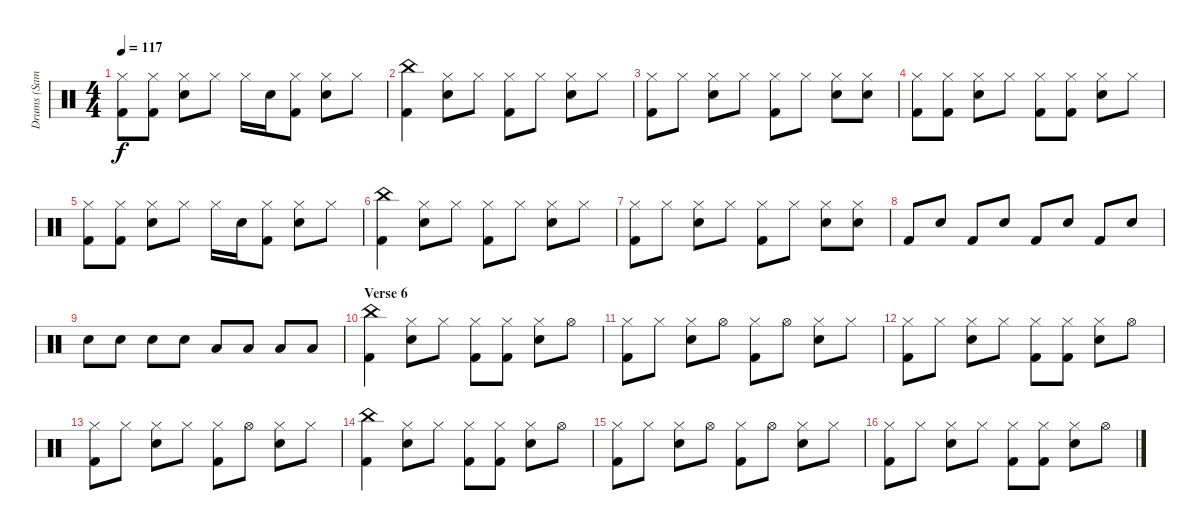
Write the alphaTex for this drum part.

\track ("Drums (Sam)" "Drums (Sam") {instrument percussion}
\staff {score}
\articulation defaults
\ts (4 4)
\tempo 117
\clef neutral
\ks c
("Hi-Hat (closed)" "Kick (hit) 2").8{dy f} ("Hi-Hat (closed)" "Kick (hit) 2").8 ("Hi-Hat (closed)" "Snare (hit) 2").8 "Hi-Hat (closed)".8 "Hi-Hat (closed)".16 "Snare (hit) 2".16 ("Hi-Hat (closed)" "Kick (hit) 2").8 ("Hi-Hat (closed)" "Snare (hit) 2").8 "Hi-Hat (closed)".8 |
("China (hit)" "Kick (hit) 2").4 ("Hi-Hat (closed)" "Snare (hit) 2").8 "Hi-Hat (closed)".8 ("Hi-Hat (closed)" "Kick (hit) 2").8 "Hi-Hat (closed)".8 ("Hi-Hat (closed)" "Snare (hit) 2").8 "Hi-Hat (closed)".8 |
("Hi-Hat (closed)" "Kick (hit) 2").8 "Hi-Hat (closed)".8 ("Hi-Hat (closed)" "Snare (hit) 2").8 "Hi-Hat (closed)".8 ("Hi-Hat (closed)" "Kick (hit) 2").8 "Hi-Hat (closed)".8 ("Hi-Hat (closed)" "Snare (hit) 2").8 ("Hi-Hat (closed)" "Snare (hit) 2").8 |
("Hi-Hat (closed)" "Kick (hit) 2").8 ("Hi-Hat (closed)" "Kick (hit) 2").8 ("Hi-Hat (closed)" "Snare (hit) 2").8 "Hi-Hat (closed)".8 ("Hi-Hat (closed)" "Kick (hit) 2").8 ("Hi-Hat (closed)" "Kick (hit) 2").8 ("Hi-Hat (closed)" "Snare (hit) 2").8 "Hi-Hat (closed)".8 |
("Hi-Hat (closed)" "Kick (hit) 2").8 ("Hi-Hat (closed)" "Kick (hit) 2").8 ("Hi-Hat (closed)" "Snare (hit) 2").8 "Hi-Hat (closed)".8 "Hi-Hat (closed)".16 "Snare (hit) 2".16 ("Hi-Hat (closed)" "Kick (hit) 2").8 ("Hi-Hat (closed)" "Snare (hit) 2").8 "Hi-Hat (closed)".8 |
("China (hit)" "Kick (hit) 2").4 ("Hi-Hat (closed)" "Snare (hit) 2").8 "Hi-Hat (closed)".8 ("Hi-Hat (closed)" "Kick (hit) 2").8 "Hi-Hat (closed)".8 ("Hi-Hat (closed)" "Snare (hit) 2").8 "Hi-Hat (closed)".8 |
("Hi-Hat (closed)" "Kick (hit) 2").8 "Hi-Hat (closed)".8 ("Hi-Hat (closed)" "Snare (hit) 2").8 "Hi-Hat (closed)".8 ("Hi-Hat (closed)" "Kick (hit) 2").8 "Hi-Hat (closed)".8 ("Hi-Hat (closed)" "Snare (hit) 2").8 ("Hi-Hat (closed)" "Snare (hit) 2").8 |
"Kick (hit) 2".8 "Snare (hit) 2".8 "Kick (hit) 2".8 "Snare (hit) 2".8 "Kick (hit) 2".8 "Snare (hit) 2".8 "Kick (hit) 2".8 "Snare (hit) 2".8 |
"Snare (hit) 2".8{volume 8} "Snare (hit) 2".8{volume 11} "Snare (hit) 2".8{volume 15} "Snare (hit) 2".8 "Low Floor Tom (hit)".8 "Low Floor Tom (hit)".8 "Low Floor Tom (hit)".8 "Low Floor Tom (hit)".8 |
\section ("" "Verse 6")
("China (hit)" "Kick (hit) 2").4 ("Hi-Hat (closed)" "Snare (hit) 2").8 "Hi-Hat (closed)".8 ("Hi-Hat (closed)" "Kick (hit) 2").8 ("Hi-Hat (closed)" "Kick (hit) 2").8 ("Hi-Hat (closed)" "Snare (hit) 2").8 "Hi-Hat (open)".8 |
("Hi-Hat (closed)" "Kick (hit) 2").8 "Hi-Hat (closed)".8 ("Hi-Hat (closed)" "Snare (hit) 2").8 "Hi-Hat (open)".8 ("Hi-Hat (closed)" "Kick (hit) 2").8 "Hi-Hat (open)".8 ("Hi-Hat (closed)" "Snare (hit) 2").8 "Hi-Hat (closed)".8 |
("Hi-Hat (closed)" "Kick (hit) 2").8 "Hi-Hat (closed)".8 ("Hi-Hat (closed)" "Snare (hit) 2").8 "Hi-Hat (closed)".8 ("Hi-Hat (closed)" "Kick (hit) 2").8 ("Hi-Hat (closed)" "Kick (hit) 2").8 ("Hi-Hat (closed)" "Snare (hit) 2").8 "Hi-Hat (open)".8 |
("Hi-Hat (closed)" "Kick (hit) 2").8 "Hi-Hat (closed)".8 ("Hi-Hat (closed)" "Snare (hit) 2").8 "Hi-Hat (closed)".8 ("Hi-Hat (closed)" "Kick (hit) 2").8 "Hi-Hat (open)".8 ("Hi-Hat (closed)" "Snare (hit) 2").8 "Hi-Hat (closed)".8 |
("China (hit)" "Kick (hit) 2").4 ("Hi-Hat (closed)" "Snare (hit) 2").8 "Hi-Hat (closed)".8 ("Hi-Hat (closed)" "Kick (hit) 2").8 ("Hi-Hat (closed)" "Kick (hit) 2").8 ("Hi-Hat (closed)" "Snare (hit) 2").8 "Hi-Hat (open)".8 |
("Hi-Hat (closed)" "Kick (hit) 2").8 "Hi-Hat (closed)".8 ("Hi-Hat (closed)" "Snare (hit) 2").8 "Hi-Hat (open)".8 ("Hi-Hat (closed)" "Kick (hit) 2").8 "Hi-Hat (open)".8 ("Hi-Hat (closed)" "Snare (hit) 2").8 "Hi-Hat (closed)".8 |
("Hi-Hat (closed)" "Kick (hit) 2").8 "Hi-Hat (closed)".8 ("Hi-Hat (closed)" "Snare (hit) 2").8 "Hi-Hat (closed)".8 ("Hi-Hat (closed)" "Kick (hit) 2").8 ("Hi-Hat (closed)" "Kick (hit) 2").8 ("Hi-Hat (closed)" "Snare (hit) 2").8 "Hi-Hat (open)".8
